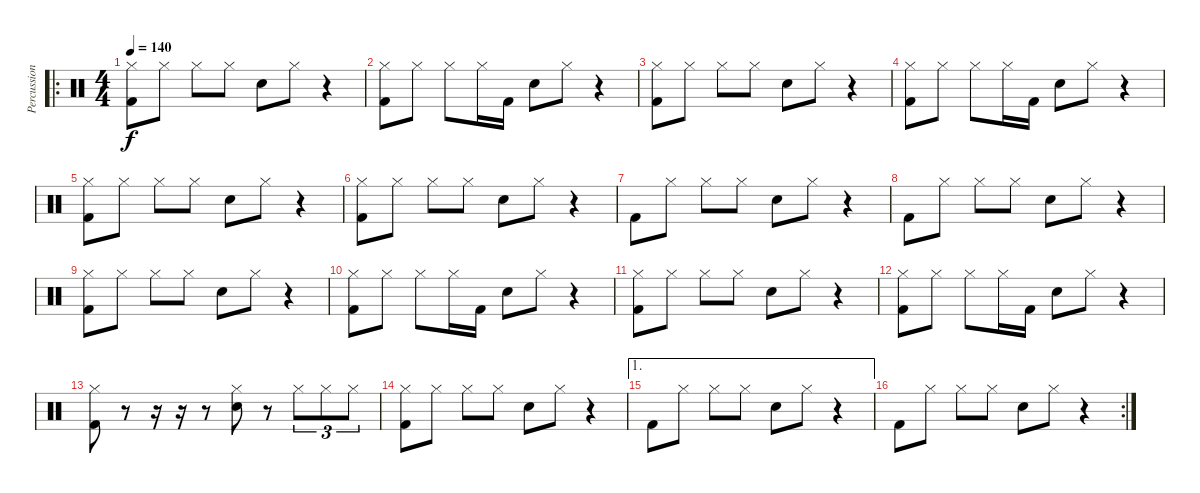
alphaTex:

\track ("Percussion" "Percussion") {instrument percussion}
\staff {score}
\articulation defaults
\ro
\ts (4 4)
\tempo 140
\clef neutral
\ks c
("Hi-Hat (closed)" "Kick (hit) 2").8{dy f} "Hi-Hat (closed)".8 "Hi-Hat (closed)".8 "Hi-Hat (closed)".8 "Snare (hit) 2".8 "Hi-Hat (closed)".8 r.4 |
("Hi-Hat (closed)" "Kick (hit) 2").8 "Hi-Hat (closed)".8 "Hi-Hat (closed)".8 "Hi-Hat (closed)".16 "Kick (hit) 2".16 "Snare (hit) 2".8 "Hi-Hat (closed)".8 r.4 |
("Hi-Hat (closed)" "Kick (hit) 2").8 "Hi-Hat (closed)".8 "Hi-Hat (closed)".8 "Hi-Hat (closed)".8 "Snare (hit) 2".8 "Hi-Hat (closed)".8 r.4 |
("Hi-Hat (closed)" "Kick (hit) 2").8 "Hi-Hat (closed)".8 "Hi-Hat (closed)".8 "Hi-Hat (closed)".16 "Kick (hit) 2".16 "Snare (hit) 2".8 "Hi-Hat (closed)".8 r.4 |
("Hi-Hat (closed)" "Kick (hit) 2").8 "Hi-Hat (closed)".8 "Hi-Hat (closed)".8 "Hi-Hat (closed)".8 "Snare (hit) 2".8 "Hi-Hat (closed)".8 r.4 |
("Hi-Hat (closed)" "Kick (hit) 2").8 "Hi-Hat (closed)".8 "Hi-Hat (closed)".8 "Hi-Hat (closed)".8 "Snare (hit) 2".8 "Hi-Hat (closed)".8 r.4 |
"Kick (hit) 2".8 "Hi-Hat (closed)".8 "Hi-Hat (closed)".8 "Hi-Hat (closed)".8 "Snare (hit) 2".8 "Hi-Hat (closed)".8 r.4 |
"Kick (hit) 2".8 "Hi-Hat (closed)".8 "Hi-Hat (closed)".8 "Hi-Hat (closed)".8 "Snare (hit) 2".8 "Hi-Hat (closed)".8 r.4 |
("Hi-Hat (closed)" "Kick (hit) 2").8 "Hi-Hat (closed)".8 "Hi-Hat (closed)".8 "Hi-Hat (closed)".8 "Snare (hit) 2".8 "Hi-Hat (closed)".8 r.4 |
("Hi-Hat (closed)" "Kick (hit) 2").8 "Hi-Hat (closed)".8 "Hi-Hat (closed)".8 "Hi-Hat (closed)".16 "Kick (hit) 2".16 "Snare (hit) 2".8 "Hi-Hat (closed)".8 r.4 |
("Hi-Hat (closed)" "Kick (hit) 2").8 "Hi-Hat (closed)".8 "Hi-Hat (closed)".8 "Hi-Hat (closed)".8 "Snare (hit) 2".8 "Hi-Hat (closed)".8 r.4 |
("Hi-Hat (closed)" "Kick (hit) 2").8 "Hi-Hat (closed)".8 "Hi-Hat (closed)".8 "Hi-Hat (closed)".16 "Kick (hit) 2".16 "Snare (hit) 2".8 "Hi-Hat (closed)".8 r.4 |
("Hi-Hat (closed)" "Kick (hit) 2").8 r.8 r.16 r.16 r.8 ("Hi-Hat (closed)" "Snare (hit) 2").8 r.8 "Hi-Hat (closed)".8{tu (3 2)} "Hi-Hat (closed)".8{tu (3 2)} "Hi-Hat (closed)".8{tu (3 2)} |
("Hi-Hat (closed)" "Kick (hit) 2").8 "Hi-Hat (closed)".8 "Hi-Hat (closed)".8 "Hi-Hat (closed)".8 "Snare (hit) 2".8 "Hi-Hat (closed)".8 r.4 |
\ae 1 "Kick (hit) 2".8 "Hi-Hat (closed)".8 "Hi-Hat (closed)".8 "Hi-Hat (closed)".8 "Snare (hit) 2".8 "Hi-Hat (closed)".8
r.4 |
\rc 2 "Kick (hit) 2".8 "Hi-Hat (closed)".8 "Hi-Hat (closed)".8 "Hi-Hat (closed)".8 "Snare (hit) 2".8 "Hi-Hat (closed)".8
r.4
